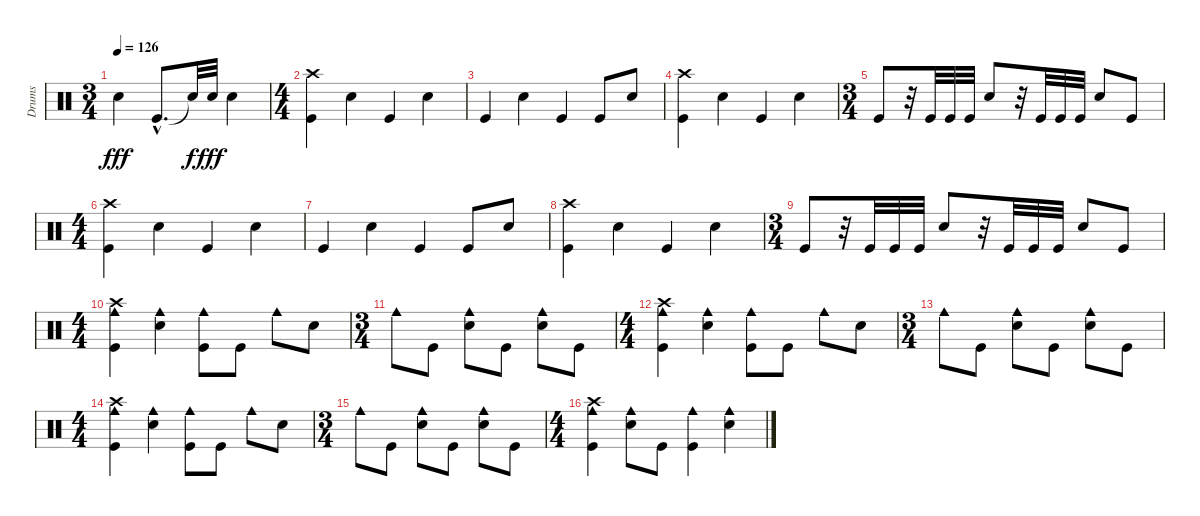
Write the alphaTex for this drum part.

\track ("Drums" "Drums") {instrument percussion}
\staff {score}
\articulation defaults
\ts (3 4)
\tempo 126
\clef neutral
\ks c "Snare (hit) 2".4{dy fff} "Kick (hit)"{hac}.8{d} "Snare (hit)"{t}.32{dy f} "Snare (hit) 2".32{dy fff} "Snare (hit) 2".4
|
\ts (4 4)
("Kick (hit)" "Crash high (hit)").4 "Snare (hit) 2".4 "Kick (hit)".4 "Snare (hit) 2".4 |
"Kick (hit)".4 "Snare (hit) 2".4 "Kick (hit)".4 "Kick (hit)".8 "Snare (hit) 2".8 |
("Kick (hit)" "Crash high (hit)").4 "Snare (hit) 2".4 "Kick (hit)".4 "Snare (hit) 2".4 |
\ts (3 4)
"Kick (hit)".8 r.32 "Kick (hit)".32 "Kick (hit)".32 "Kick (hit)".32 "Snare (hit) 2".8 r.32 "Kick (hit)".32 "Kick (hit)".32 "Kick (hit)".32 "Snare (hit) 2".8 "Kick (hit)".8 |
\ts (4 4)
("Kick (hit)" "Crash high (hit)").4 "Snare (hit) 2".4 "Kick (hit)".4 "Snare (hit) 2".4 |
"Kick (hit)".4 "Snare (hit) 2".4 "Kick (hit)".4 "Kick (hit)".8 "Snare (hit) 2".8 |
("Kick (hit)" "Crash high (hit)").4 "Snare (hit) 2".4 "Kick (hit)".4 "Snare (hit) 2".4 |
\ts (3 4)
"Kick (hit)".8 r.32 "Kick (hit)".32 "Kick (hit)".32 "Kick (hit)".32 "Snare (hit) 2".8 r.32 "Kick (hit)".32 "Kick (hit)".32 "Kick (hit)".32 "Snare (hit) 2".8 "Kick (hit)".8 |
\ts (4 4)
("Kick (hit)" "Crash high (hit)" "Cowbell medium (hit)").4 ("Snare (hit) 2" "Cowbell medium (hit)").4 ("Kick (hit)" "Cowbell medium (hit)").8 "Kick (hit)".8 "Cowbell medium (hit)".8 "Snare (hit) 2".8 |
\ts (3 4)
"Cowbell medium (hit)".8 "Kick (hit)".8 ("Snare (hit) 2" "Cowbell medium (hit)").8 "Kick (hit)".8 ("Snare (hit) 2" "Cowbell medium (hit)").8 "Kick (hit)".8 |
\ts (4 4)
("Kick (hit)" "Crash high (hit)" "Cowbell medium (hit)").4 ("Snare (hit) 2" "Cowbell medium (hit)").4 ("Kick (hit)" "Cowbell medium (hit)").8 "Kick (hit)".8 "Cowbell medium (hit)".8 "Snare (hit) 2".8 |
\ts (3 4)
"Cowbell medium (hit)".8 "Kick (hit)".8 ("Snare (hit) 2" "Cowbell medium (hit)").8 "Kick (hit)".8 ("Snare (hit) 2" "Cowbell medium (hit)").8 "Kick (hit)".8 |
\ts (4 4)
("Kick (hit)" "Crash high (hit)" "Cowbell medium (hit)").4 ("Snare (hit) 2" "Cowbell medium (hit)").4 ("Kick (hit)" "Cowbell medium (hit)").8 "Kick (hit)".8 "Cowbell medium (hit)".8 "Snare (hit) 2".8 |
\ts (3 4)
"Cowbell medium (hit)".8 "Kick (hit)".8 ("Snare (hit) 2" "Cowbell medium (hit)").8 "Kick (hit)".8 ("Snare (hit) 2" "Cowbell medium (hit)").8 "Kick (hit)".8 |
\ts (4 4)
("Kick (hit)" "Crash high (hit)" "Cowbell medium (hit)").4 ("Snare (hit) 2" "Cowbell medium (hit)").8 "Kick (hit)".8 ("Kick (hit)" "Cowbell medium (hit)").4 ("Snare (hit) 2" "Cowbell medium (hit)").4
